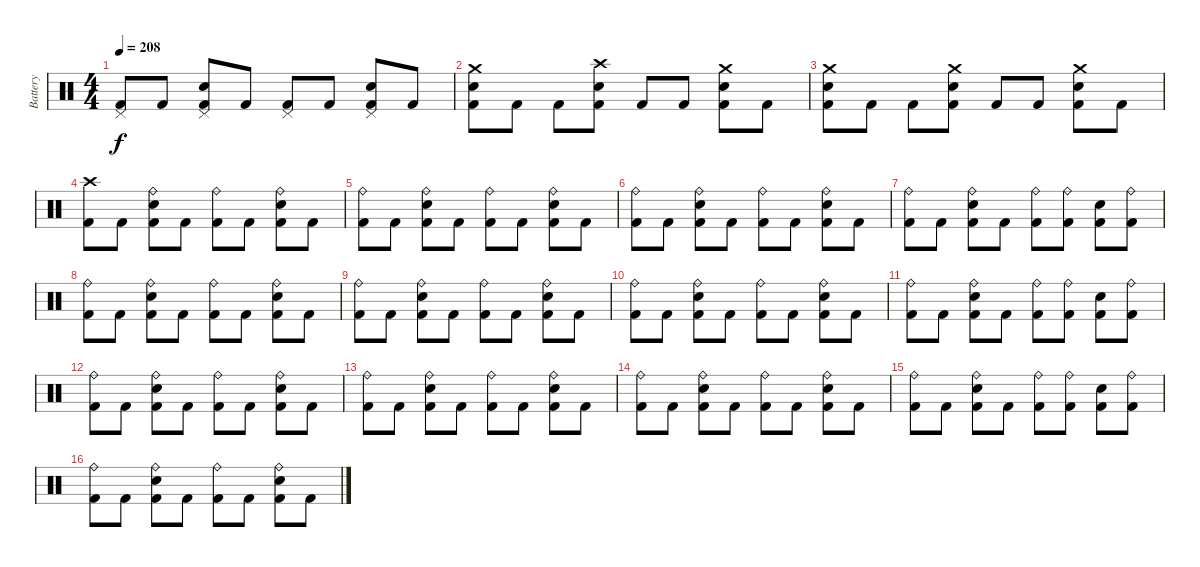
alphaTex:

\track ("Battery" "Battery") {instrument percussion}
\staff {score}
\articulation defaults
\ts (4 4)
\tempo 208
\clef neutral
\ks c
("Pedal Hi-Hat (hit)" "Kick (hit) 2").8{dy f} "Kick (hit) 2".8 ("Pedal Hi-Hat (hit)" "Electric Snare (hit)" "Kick (hit) 2").8 "Kick (hit) 2".8 ("Pedal Hi-Hat (hit)" "Kick (hit) 2").8 "Kick (hit) 2".8 ("Pedal Hi-Hat (hit)" "Electric Snare (hit)" "Kick (hit) 2").8 "Kick (hit) 2".8 |
("Crash medium (hit)" "Electric Snare (hit)" "Kick (hit) 2").8 "Kick (hit) 2".8 "Kick (hit) 2".8 ("Crash high (hit)" "Electric Snare (hit)" "Kick (hit) 2").8 "Kick (hit) 2".8 "Kick (hit) 2".8 ("Crash medium (hit)" "Electric Snare (hit)" "Kick (hit) 2").8 "Kick (hit) 2".8 |
("Crash medium (hit)" "Electric Snare (hit)" "Kick (hit) 2").8 "Kick (hit) 2".8 "Kick (hit) 2".8 ("Crash medium (hit)" "Electric Snare (hit)" "Kick (hit) 2").8 "Kick (hit) 2".8 "Kick (hit) 2".8 ("Crash medium (hit)" "Electric Snare (hit)" "Kick (hit) 2").8 "Kick (hit) 2".8 |
("Crash high (hit)" "Kick (hit) 2").8 "Kick (hit) 2".8 ("Ride (bell)" "Electric Snare (hit)" "Kick (hit) 2").8 "Kick (hit) 2".8 ("Ride (bell)" "Kick (hit) 2").8 "Kick (hit) 2".8 ("Ride (bell)" "Electric Snare (hit)" "Kick (hit) 2").8 "Kick (hit) 2".8 |
("Ride (bell)" "Kick (hit) 2").8 "Kick (hit) 2".8 ("Ride (bell)" "Electric Snare (hit)" "Kick (hit) 2").8 "Kick (hit) 2".8 ("Ride (bell)" "Kick (hit) 2").8 "Kick (hit) 2".8 ("Ride (bell)" "Electric Snare (hit)" "Kick (hit) 2").8 "Kick (hit) 2".8 |
("Ride (bell)" "Kick (hit) 2").8 "Kick (hit) 2".8 ("Ride (bell)" "Electric Snare (hit)" "Kick (hit) 2").8 "Kick (hit) 2".8 ("Ride (bell)" "Kick (hit) 2").8 "Kick (hit) 2".8 ("Ride (bell)" "Electric Snare (hit)" "Kick (hit) 2").8 "Kick (hit) 2".8 |
("Ride (bell)" "Kick (hit) 2").8 "Kick (hit) 2".8 ("Ride (bell)" "Electric Snare (hit)" "Kick (hit) 2").8 "Kick (hit) 2".8 ("Ride (bell)" "Kick (hit) 2").8 ("Ride (bell)" "Kick (hit) 2").8 ("Electric Snare (hit)" "Kick (hit) 2").8 ("Ride (bell)" "Kick (hit) 2").8 |
("Ride (bell)" "Kick (hit) 2").8 "Kick (hit) 2".8 ("Ride (bell)" "Electric Snare (hit)" "Kick (hit) 2").8 "Kick (hit) 2".8 ("Ride (bell)" "Kick (hit) 2").8 "Kick (hit) 2".8 ("Ride (bell)" "Electric Snare (hit)" "Kick (hit) 2").8 "Kick (hit) 2".8 |
("Ride (bell)" "Kick (hit) 2").8 "Kick (hit) 2".8 ("Ride (bell)" "Electric Snare (hit)" "Kick (hit) 2").8 "Kick (hit) 2".8 ("Ride (bell)" "Kick (hit) 2").8 "Kick (hit) 2".8 ("Ride (bell)" "Electric Snare (hit)" "Kick (hit) 2").8 "Kick (hit) 2".8 |
("Ride (bell)" "Kick (hit) 2").8 "Kick (hit) 2".8 ("Ride (bell)" "Electric Snare (hit)" "Kick (hit) 2").8 "Kick (hit) 2".8 ("Ride (bell)" "Kick (hit) 2").8 "Kick (hit) 2".8 ("Ride (bell)" "Electric Snare (hit)" "Kick (hit) 2").8 "Kick (hit) 2".8 |
("Ride (bell)" "Kick (hit) 2").8 "Kick (hit) 2".8 ("Ride (bell)" "Electric Snare (hit)" "Kick (hit) 2").8 "Kick (hit) 2".8 ("Ride (bell)" "Kick (hit) 2").8 ("Ride (bell)" "Kick (hit) 2").8 ("Electric Snare (hit)" "Kick (hit) 2").8 ("Ride (bell)" "Kick (hit) 2").8 |
("Ride (bell)" "Kick (hit) 2").8 "Kick (hit) 2".8 ("Ride (bell)" "Electric Snare (hit)" "Kick (hit) 2").8 "Kick (hit) 2".8 ("Ride (bell)" "Kick (hit) 2").8 "Kick (hit) 2".8 ("Ride (bell)" "Electric Snare (hit)" "Kick (hit) 2").8 "Kick (hit) 2".8 |
("Ride (bell)" "Kick (hit) 2").8 "Kick (hit) 2".8 ("Ride (bell)" "Electric Snare (hit)" "Kick (hit) 2").8 "Kick (hit) 2".8 ("Ride (bell)" "Kick (hit) 2").8 "Kick (hit) 2".8 ("Ride (bell)" "Electric Snare (hit)" "Kick (hit) 2").8 "Kick (hit) 2".8 |
("Ride (bell)" "Kick (hit) 2").8 "Kick (hit) 2".8 ("Ride (bell)" "Electric Snare (hit)" "Kick (hit) 2").8 "Kick (hit) 2".8 ("Ride (bell)" "Kick (hit) 2").8 "Kick (hit) 2".8 ("Ride (bell)" "Electric Snare (hit)" "Kick (hit) 2").8 "Kick (hit) 2".8 |
("Ride (bell)" "Kick (hit) 2").8 "Kick (hit) 2".8 ("Ride (bell)" "Electric Snare (hit)" "Kick (hit) 2").8 "Kick (hit) 2".8 ("Ride (bell)" "Kick (hit) 2").8 ("Ride (bell)" "Kick (hit) 2").8 ("Electric Snare (hit)" "Kick (hit) 2").8 ("Ride (bell)" "Kick (hit) 2").8 |
("Ride (bell)" "Kick (hit) 2").8 "Kick (hit) 2".8 ("Ride (bell)" "Electric Snare (hit)" "Kick (hit) 2").8 "Kick (hit) 2".8 ("Ride (bell)" "Kick (hit) 2").8 "Kick (hit) 2".8 ("Ride (bell)" "Electric Snare (hit)" "Kick (hit) 2").8 "Kick (hit) 2".8
